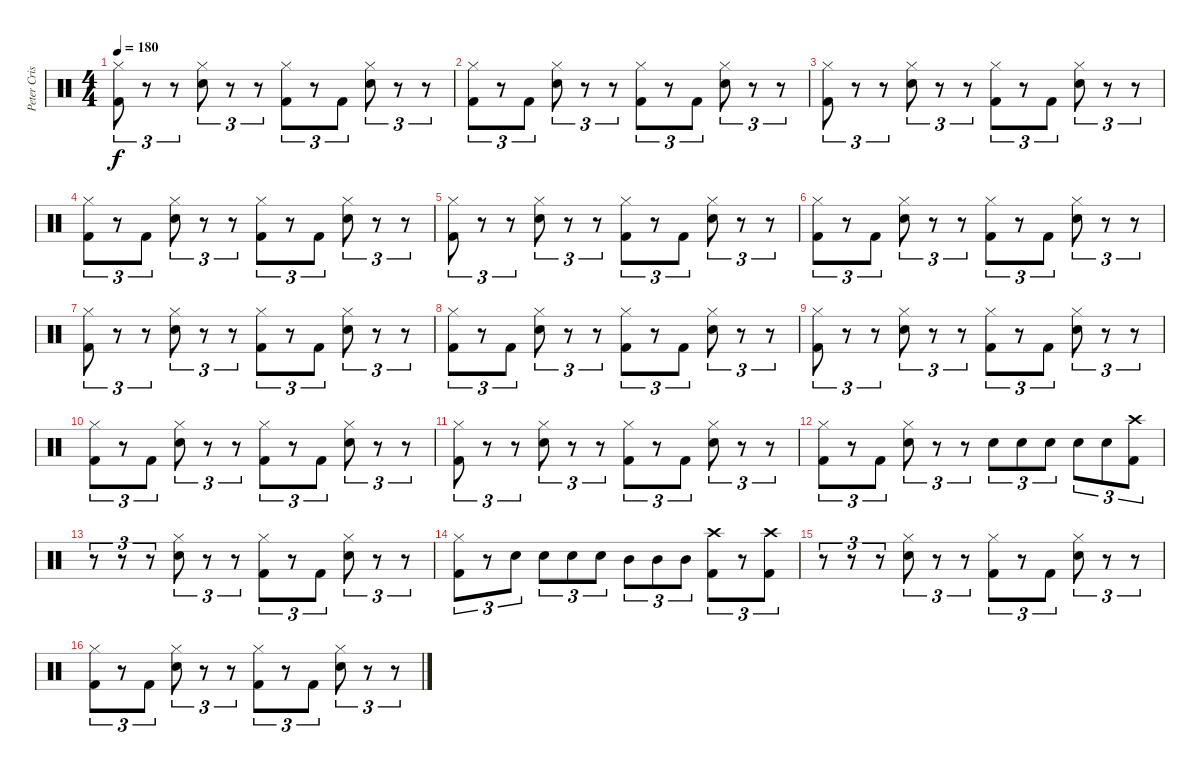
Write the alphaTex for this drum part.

\track ("Peter Criss" "Peter Cris") {instrument percussion}
\staff {score}
\articulation defaults
\ts (4 4)
\tempo 180
\clef neutral
\ks c
("Hi-Hat (closed)" "Kick (hit) 2").8{tu (3 2) dy f} r.8{tu (3 2)} r.8{tu (3 2)} ("Hi-Hat (closed)" "Electric Snare (hit)").8{tu (3 2)} r.8{tu (3 2)} r.8{tu (3 2)} ("Hi-Hat (closed)" "Kick (hit) 2").8{tu (3 2)} r.8{tu (3 2)} "Kick (hit) 2".8{tu (3 2)} ("Hi-Hat (closed)" "Electric Snare (hit)").8{tu (3 2)} r.8{tu (3 2)} r.8{tu (3 2)} |
("Hi-Hat (closed)" "Kick (hit) 2").8{tu (3 2)} r.8{tu (3 2)} "Kick (hit) 2".8{tu (3 2)} ("Hi-Hat (closed)" "Electric Snare (hit)").8{tu (3 2)} r.8{tu (3 2)} r.8{tu (3 2)} ("Hi-Hat (closed)" "Kick (hit) 2").8{tu (3 2)} r.8{tu (3 2)} "Kick (hit) 2".8{tu (3 2)} ("Hi-Hat (closed)" "Electric Snare (hit)").8{tu (3 2)} r.8{tu (3 2)} r.8{tu (3 2)} |
("Hi-Hat (closed)" "Kick (hit) 2").8{tu (3 2)} r.8{tu (3 2)} r.8{tu (3 2)} ("Hi-Hat (closed)" "Electric Snare (hit)").8{tu (3 2)} r.8{tu (3 2)} r.8{tu (3 2)} ("Hi-Hat (closed)" "Kick (hit) 2").8{tu (3 2)} r.8{tu (3 2)} "Kick (hit) 2".8{tu (3 2)} ("Hi-Hat (closed)" "Electric Snare (hit)").8{tu (3 2)} r.8{tu (3 2)} r.8{tu (3 2)} |
("Hi-Hat (closed)" "Kick (hit) 2").8{tu (3 2)} r.8{tu (3 2)} "Kick (hit) 2".8{tu (3 2)} ("Hi-Hat (closed)" "Electric Snare (hit)").8{tu (3 2)} r.8{tu (3 2)} r.8{tu (3 2)} ("Hi-Hat (closed)" "Kick (hit) 2").8{tu (3 2)} r.8{tu (3 2)} "Kick (hit) 2".8{tu (3 2)} ("Hi-Hat (closed)" "Electric Snare (hit)").8{tu (3 2)} r.8{tu (3 2)} r.8{tu (3 2)} |
("Hi-Hat (closed)" "Kick (hit) 2").8{tu (3 2)} r.8{tu (3 2)} r.8{tu (3 2)} ("Hi-Hat (closed)" "Electric Snare (hit)").8{tu (3 2)} r.8{tu (3 2)} r.8{tu (3 2)} ("Hi-Hat (closed)" "Kick (hit) 2").8{tu (3 2)} r.8{tu (3 2)} "Kick (hit) 2".8{tu (3 2)} ("Hi-Hat (closed)" "Electric Snare (hit)").8{tu (3 2)} r.8{tu (3 2)} r.8{tu (3 2)} |
("Hi-Hat (closed)" "Kick (hit) 2").8{tu (3 2)} r.8{tu (3 2)} "Kick (hit) 2".8{tu (3 2)} ("Hi-Hat (closed)" "Electric Snare (hit)").8{tu (3 2)} r.8{tu (3 2)} r.8{tu (3 2)} ("Hi-Hat (closed)" "Kick (hit) 2").8{tu (3 2)} r.8{tu (3 2)} "Kick (hit) 2".8{tu (3 2)} ("Hi-Hat (closed)" "Electric Snare (hit)").8{tu (3 2)} r.8{tu (3 2)} r.8{tu (3 2)} |
("Hi-Hat (closed)" "Kick (hit) 2").8{tu (3 2)} r.8{tu (3 2)} r.8{tu (3 2)} ("Hi-Hat (closed)" "Electric Snare (hit)").8{tu (3 2)} r.8{tu (3 2)} r.8{tu (3 2)} ("Hi-Hat (closed)" "Kick (hit) 2").8{tu (3 2)} r.8{tu (3 2)} "Kick (hit) 2".8{tu (3 2)} ("Hi-Hat (closed)" "Electric Snare (hit)").8{tu (3 2)} r.8{tu (3 2)} r.8{tu (3 2)} |
("Hi-Hat (closed)" "Kick (hit) 2").8{tu (3 2)} r.8{tu (3 2)} "Kick (hit) 2".8{tu (3 2)} ("Hi-Hat (closed)" "Electric Snare (hit)").8{tu (3 2)} r.8{tu (3 2)} r.8{tu (3 2)} ("Hi-Hat (closed)" "Kick (hit) 2").8{tu (3 2)} r.8{tu (3 2)} "Kick (hit) 2".8{tu (3 2)} ("Hi-Hat (closed)" "Electric Snare (hit)").8{tu (3 2)} r.8{tu (3 2)} r.8{tu (3 2)} |
("Hi-Hat (closed)" "Kick (hit) 2").8{tu (3 2)} r.8{tu (3 2)} r.8{tu (3 2)} ("Hi-Hat (closed)" "Electric Snare (hit)").8{tu (3 2)} r.8{tu (3 2)} r.8{tu (3 2)} ("Hi-Hat (closed)" "Kick (hit) 2").8{tu (3 2)} r.8{tu (3 2)} "Kick (hit) 2".8{tu (3 2)} ("Hi-Hat (closed)" "Electric Snare (hit)").8{tu (3 2)} r.8{tu (3 2)} r.8{tu (3 2)} |
("Hi-Hat (closed)" "Kick (hit) 2").8{tu (3 2)} r.8{tu (3 2)} "Kick (hit) 2".8{tu (3 2)} ("Hi-Hat (closed)" "Electric Snare (hit)").8{tu (3 2)} r.8{tu (3 2)} r.8{tu (3 2)} ("Hi-Hat (closed)" "Kick (hit) 2").8{tu (3 2)} r.8{tu (3 2)} "Kick (hit) 2".8{tu (3 2)} ("Hi-Hat (closed)" "Electric Snare (hit)").8{tu (3 2)} r.8{tu (3 2)} r.8{tu (3 2)} |
("Hi-Hat (closed)" "Kick (hit) 2").8{tu (3 2)} r.8{tu (3 2)} r.8{tu (3 2)} ("Hi-Hat (closed)" "Electric Snare (hit)").8{tu (3 2)} r.8{tu (3 2)} r.8{tu (3 2)} ("Hi-Hat (closed)" "Kick (hit) 2").8{tu (3 2)} r.8{tu (3 2)} "Kick (hit) 2".8{tu (3 2)} ("Hi-Hat (closed)" "Electric Snare (hit)").8{tu (3 2)} r.8{tu (3 2)} r.8{tu (3 2)} |
("Hi-Hat (closed)" "Kick (hit) 2").8{tu (3 2)} r.8{tu (3 2)} "Kick (hit) 2".8{tu (3 2)} ("Hi-Hat (closed)" "Electric Snare (hit)").8{tu (3 2)} r.8{tu (3 2)} r.8{tu (3 2)} "Electric Snare (hit)".8{tu (3 2)} "Electric Snare (hit)".8{tu (3 2)} "Electric Snare (hit)".8{tu (3 2)} "Electric Snare (hit)".8{tu (3 2)} "Electric Snare (hit)".8{tu (3 2)} ("Crash high (hit)" "Kick (hit) 2").8{tu (3 2)} |
r.8{tu (3 2)} r.8{tu (3 2)} r.8{tu (3 2)} ("Hi-Hat (closed)" "Electric Snare (hit)").8{tu (3 2)} r.8{tu (3 2)} r.8{tu (3 2)} ("Hi-Hat (closed)" "Kick (hit) 2").8{tu (3 2)} r.8{tu (3 2)} "Kick (hit) 2".8{tu (3 2)} ("Hi-Hat (closed)" "Electric Snare (hit)").8{tu (3 2)} r.8{tu (3 2)} r.8{tu (3 2)} |
("Hi-Hat (closed)" "Kick (hit) 2").8{tu (3 2)} r.8{tu (3 2)} "Electric Snare (hit)".8{tu (3 2)} "Electric Snare (hit)".8{tu (3 2)} "Electric Snare (hit)".8{tu (3 2)} "Electric Snare (hit)".8{tu (3 2)} "Mid Tom (hit)".8{tu (3 2)} "Mid Tom (hit)".8{tu (3 2)} "Mid Tom (hit)".8{tu (3 2)} ("Crash high (hit)" "Kick (hit) 2").8{tu (3 2)} r.8{tu (3 2)} ("Crash high (hit)" "Kick (hit) 2").8{tu (3 2)} |
r.8{tu (3 2)} r.8{tu (3 2)} r.8{tu (3 2)} ("Hi-Hat (closed)" "Electric Snare (hit)").8{tu (3 2)} r.8{tu (3 2)} r.8{tu (3 2)} ("Hi-Hat (closed)" "Kick (hit) 2").8{tu (3 2)} r.8{tu (3 2)} "Kick (hit) 2".8{tu (3 2)} ("Hi-Hat (closed)" "Electric Snare (hit)").8{tu (3 2)} r.8{tu (3 2)} r.8{tu (3 2)} |
("Hi-Hat (closed)" "Kick (hit) 2").8{tu (3 2)} r.8{tu (3 2)} "Kick (hit) 2".8{tu (3 2)} ("Hi-Hat (closed)" "Electric Snare (hit)").8{tu (3 2)} r.8{tu (3 2)} r.8{tu (3 2)} ("Hi-Hat (closed)" "Kick (hit) 2").8{tu (3 2)} r.8{tu (3 2)} "Kick (hit) 2".8{tu (3 2)} ("Hi-Hat (closed)" "Electric Snare (hit)").8{tu (3 2)} r.8{tu (3 2)} r.8{tu (3 2)}
